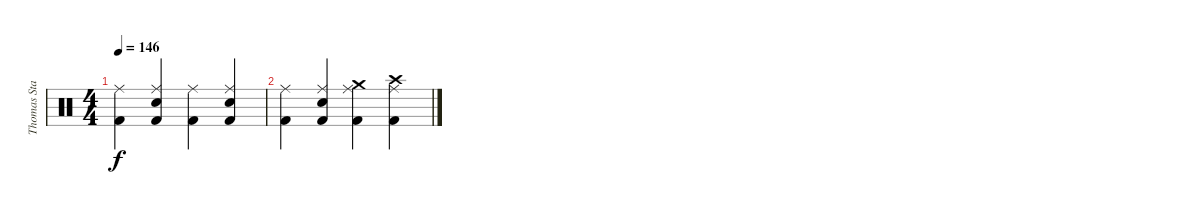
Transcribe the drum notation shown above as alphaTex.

\track ("Thomas Stauch" "Thomas Sta") {instrument percussion}
\staff {score}
\articulation defaults
\ts (4 4)
\tempo 146
\clef neutral
\ks c
("Kick (hit) 2" "Ride (middle)").4{dy f} ("Electric Snare (hit)" "Kick (hit) 2" "Ride (middle)").4 ("Kick (hit) 2" "Ride (middle)").4 ("Electric Snare (hit)" "Kick (hit) 2" "Ride (middle)").4 |
("Kick (hit) 2" "Ride (middle)").4 ("Electric Snare (hit)" "Kick (hit) 2" "Ride (middle)").4 ("Crash medium (hit)" "Kick (hit) 2" "Ride (middle)").4 ("Crash high (hit)" "Kick (hit) 2" "Ride (middle)").4
